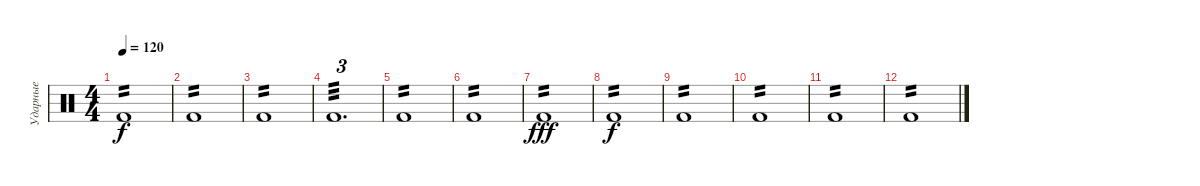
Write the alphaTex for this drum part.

\track ("Ударные" "Ударные") {instrument percussion}
\staff {score}
\articulation defaults
\ts (4 4)
\tempo 120
\clef neutral
\ks c "Kick (hit) 2".1{tp 2 dy f}
|
"Kick (hit) 2".1{tp 2} |
"Kick (hit) 2".1{tp 2} |
"Kick (hit) 2".1{d tu (3 2) tp 3} |
"Kick (hit) 2".1{tp 2} |
"Kick (hit) 2".1{tp 2} |
"Kick (hit) 2".1{tp 2 dy fff} |
"Kick (hit) 2".1{tp 2 dy f} |
"Kick (hit) 2".1{tp 2} |
"Kick (hit) 2".1{tp 2} |
"Kick (hit) 2".1{tp 2} |
"Kick (hit) 2".1{tp 2}
